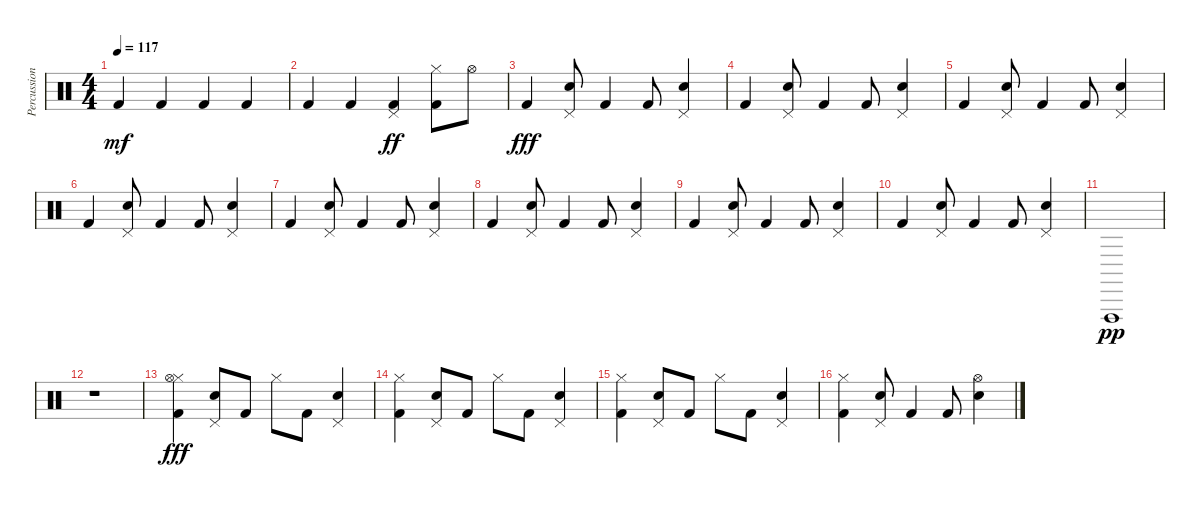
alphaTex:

\track ("Percussion" "Percussion") {instrument percussion}
\staff {score}
\articulation defaults
\ts (4 4)
\tempo 117
\clef neutral
\ks c "Kick (hit) 2".4{dy mf} "Kick (hit) 2".4 "Kick (hit) 2".4 "Kick (hit) 2".4
|
"Kick (hit) 2".4 "Kick (hit) 2".4 ("Kick (hit) 2" "Pedal Hi-Hat (hit)").4{dy ff} ("Kick (hit) 2" "Hi-Hat (closed)").8 "Hi-Hat (open)".8 |
"Kick (hit) 2".4{dy fff} ("Pedal Hi-Hat (hit)" "Electric Snare (hit)").8 "Kick (hit) 2".4 "Kick (hit) 2".8 ("Pedal Hi-Hat (hit)" "Electric Snare (hit)").4 |
"Kick (hit) 2".4 ("Pedal Hi-Hat (hit)" "Electric Snare (hit)").8 "Kick (hit) 2".4 "Kick (hit) 2".8 ("Pedal Hi-Hat (hit)" "Electric Snare (hit)").4 |
"Kick (hit) 2".4 ("Pedal Hi-Hat (hit)" "Electric Snare (hit)").8 "Kick (hit) 2".4 "Kick (hit) 2".8 ("Pedal Hi-Hat (hit)" "Electric Snare (hit)").4 |
"Kick (hit) 2".4 ("Pedal Hi-Hat (hit)" "Electric Snare (hit)").8 "Kick (hit) 2".4 "Kick (hit) 2".8 ("Pedal Hi-Hat (hit)" "Electric Snare (hit)").4 |
"Kick (hit) 2".4 ("Pedal Hi-Hat (hit)" "Electric Snare (hit)").8 "Kick (hit) 2".4 "Kick (hit) 2".8 ("Pedal Hi-Hat (hit)" "Electric Snare (hit)").4 |
"Kick (hit) 2".4 ("Pedal Hi-Hat (hit)" "Electric Snare (hit)").8 "Kick (hit) 2".4 "Kick (hit) 2".8 ("Pedal Hi-Hat (hit)" "Electric Snare (hit)").4 |
"Kick (hit) 2".4 ("Pedal Hi-Hat (hit)" "Electric Snare (hit)").8 "Kick (hit) 2".4 "Kick (hit) 2".8 ("Pedal Hi-Hat (hit)" "Electric Snare (hit)").4 |
"Kick (hit) 2".4 ("Pedal Hi-Hat (hit)" "Electric Snare (hit)").8 "Kick (hit) 2".4 "Kick (hit) 2".8 ("Pedal Hi-Hat (hit)" "Electric Snare (hit)").4 |
"Vibraslap (hit)".1{dy pp} |
r.1 |
("Hi-Hat (closed)" "Kick (hit) 2" "Hi-Hat (open)").4{dy fff} ("Pedal Hi-Hat (hit)" "Electric Snare (hit)").8 "Kick (hit) 2".8 "Hi-Hat (closed)".8 "Kick (hit) 2".8 ("Pedal Hi-Hat (hit)" "Electric Snare (hit)").4 |
("Hi-Hat (closed)" "Kick (hit) 2").4 ("Pedal Hi-Hat (hit)" "Electric Snare (hit)").8 "Kick (hit) 2".8 "Hi-Hat (closed)".8 "Kick (hit) 2".8 ("Pedal Hi-Hat (hit)" "Electric Snare (hit)").4 |
("Hi-Hat (closed)" "Kick (hit) 2").4 ("Pedal Hi-Hat (hit)" "Electric Snare (hit)").8 "Kick (hit) 2".8 "Hi-Hat (closed)".8 "Kick (hit) 2".8 ("Pedal Hi-Hat (hit)" "Electric Snare (hit)").4 |
("Hi-Hat (closed)" "Kick (hit) 2").4 ("Pedal Hi-Hat (hit)" "Electric Snare (hit)").8 "Kick (hit) 2".4 "Kick (hit) 2".8 ("Hi-Hat (open)" "Electric Snare (hit)").4
